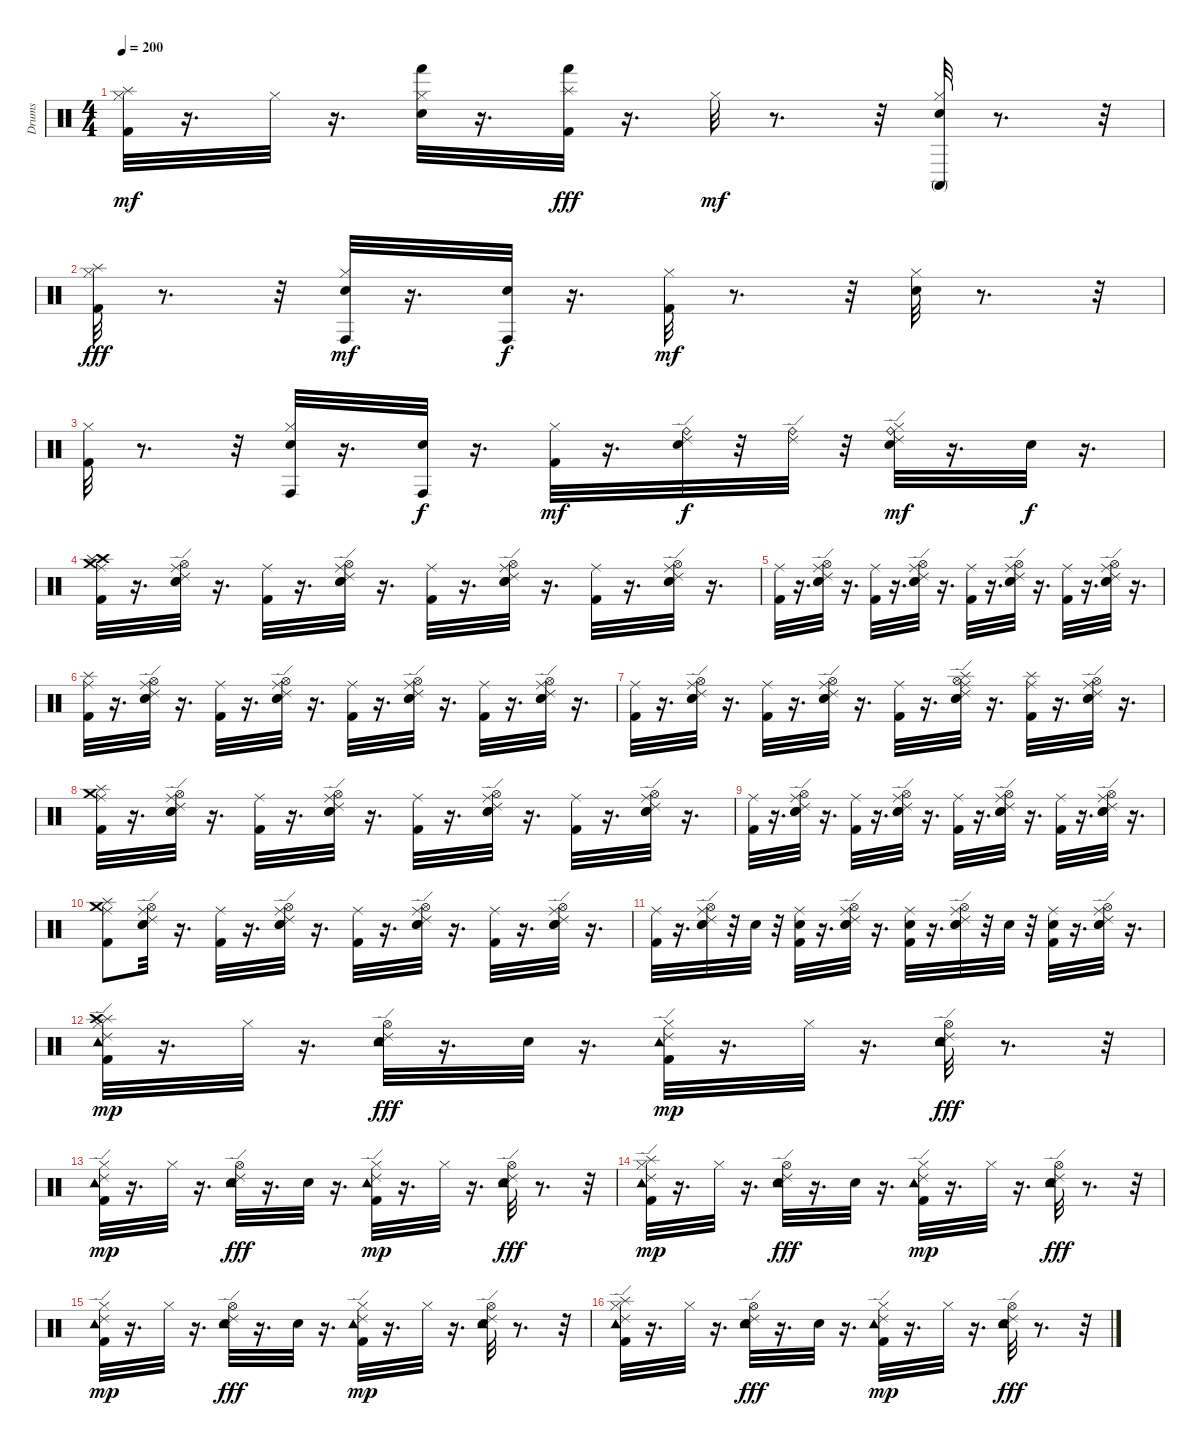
\track ("Drums" "Drums") {instrument percussion}
\staff {score}
\articulation defaults
\ts (4 4)
\tempo 200
\clef neutral
\ks c
("Splash (hit)" "Hi-Hat (closed)" "Kick (hit) 2").32{dy mf} r.16{d} "Hi-Hat (closed)".32 r.16{d} ("Hand (hit)" "Hi-Hat (closed)" "Electric Snare (hit)").32 r.16{d} ("Hand (hit)" "Splash (hit)" "Kick (hit) 2").32{dy fff} r.16{d} "Hi-Hat (closed)".32{dy mf} r.8{d} r.32 ("Conga high (mute)" "Hi-Hat (closed)" "Electric Snare (hit)").32 r.8{d} r.32 |
("Hi-Hat (closed)" "Splash (hit)" "Kick (hit) 2").32{dy fff} r.8{d} r.32 ("Hi-Hat (closed)" "Electric Snare (hit)" "Conga high (hit)").32{dy mf} r.16{d} ("Conga high (hit)" "Electric Snare (hit)").32{dy f} r.16{d} ("Hi-Hat (closed)" "Kick (hit) 2").32{dy mf} r.8{d} r.32 ("Hi-Hat (closed)" "Electric Snare (hit)").32 r.8{d} r.32 |
("Hi-Hat (closed)" "Kick (hit) 2").32 r.8{d} r.32 ("Conga high (hit)" "Hi-Hat (closed)" "Electric Snare (hit)").32 r.16{d} ("Conga high (hit)" "Electric Snare (hit)").32{dy f} r.16{d} ("Hi-Hat (closed)" "Kick (hit) 2").32{dy mf} r.16{d} ("Ride (edge) 2" "Electric Snare (hit)" "Ride (bell)").32{dy f} r.32 ("Ride (edge) 2" "Ride (bell)").32 r.32 ("Ride (edge) 2" "Ride (bell)" "Hi-Hat (closed)" "Electric Snare (hit)").32{dy mf} r.16{d} "Electric Snare (hit)".32{dy f} r.16{d} |
("Ride (middle)" "Crash high (hit)" "Splash (hit)" "Crash medium (hit)" "Kick (hit) 2").32 r.16{d} ("Ride (middle)" "Ride (edge) 2" "Hand Clap (hit)" "Electric Snare (hit)" "Hi-Hat (open)").32 r.16{d} ("Ride (middle)" "Kick (hit) 2").32 r.16{d} ("Ride (middle)" "Ride (edge) 2" "Hand Clap (hit)" "Electric Snare (hit)" "Hi-Hat (open)").32 r.16{d} ("Ride (middle)" "Kick (hit) 2").32 r.16{d} ("Hi-Hat (open)" "Ride (middle)" "Ride (edge) 2" "Hand Clap (hit)" "Electric Snare (hit)").32 r.16{d} ("Ride (middle)" "Kick (hit) 2").32 r.16{d} ("Hi-Hat (open)" "Ride (middle)" "Ride (edge) 2" "Hand Clap (hit)" "Electric Snare (hit)").32 r.16{d} |
("Ride (middle)" "Kick (hit) 2").32 r.16{d} ("Ride (middle)" "Ride (edge) 2" "Hand Clap (hit)" "Electric Snare (hit)" "Hi-Hat (open)").32 r.16{d} ("Ride (middle)" "Kick (hit) 2").32 r.16{d} ("Ride (middle)" "Ride (edge) 2" "Hand Clap (hit)" "Electric Snare (hit)" "Hi-Hat (open)").32 r.16{d} ("Ride (middle)" "Kick (hit) 2").32 r.16{d} ("Hi-Hat (open)" "Ride (middle)" "Ride (edge) 2" "Hand Clap (hit)" "Electric Snare (hit)").32 r.16{d} ("Ride (middle)" "Kick (hit) 2").32 r.16{d} ("Hi-Hat (open)" "Ride (middle)" "Ride (edge) 2" "Hand Clap (hit)" "Electric Snare (hit)").32 r.16{d} |
("Ride (middle)" "Splash (hit)" "Kick (hit) 2").32 r.16{d} ("Ride (middle)" "Ride (edge) 2" "Hand Clap (hit)" "Electric Snare (hit)" "Hi-Hat (open)").32 r.16{d} ("Ride (middle)" "Kick (hit) 2").32 r.16{d} ("Ride (middle)" "Ride (edge) 2" "Hand Clap (hit)" "Electric Snare (hit)" "Hi-Hat (open)").32 r.16{d} ("Ride (middle)" "Kick (hit) 2").32 r.16{d} ("Hi-Hat (open)" "Ride (middle)" "Ride (edge) 2" "Hand Clap (hit)" "Electric Snare (hit)").32 r.16{d} ("Ride (middle)" "Kick (hit) 2").32 r.16{d} ("Hi-Hat (open)" "Ride (middle)" "Ride (edge) 2" "Hand Clap (hit)" "Electric Snare (hit)").32 r.16{d} |
("Kick (hit) 2" "Ride (middle)").32 r.16{d} ("Ride (middle)" "Ride (edge) 2" "Electric Snare (hit)" "Hi-Hat (open)" "Hand Clap (hit)").32 r.16{d} ("Kick (hit) 2" "Ride (middle)").32 r.16{d} ("Ride (middle)" "Ride (edge) 2" "Electric Snare (hit)" "Hi-Hat (open)" "Hand Clap (hit)").32 r.16{d} ("Kick (hit) 2" "Ride (middle)").32 r.16{d} ("Splash (hit)" "Hi-Hat (open)" "Ride (middle)" "Hand Clap (hit)" "Electric Snare (hit)" "Ride (edge) 2").32 r.16{d} ("Splash (hit)" "Kick (hit) 2" "Ride (middle)").32 r.16{d} ("Hi-Hat (open)" "Ride (middle)" "Hand Clap (hit)" "Electric Snare (hit)" "Ride (edge) 2").32 r.16{d} |
("Crash medium (hit)" "Ride (middle)" "Splash (hit)" "Kick (hit) 2").32 r.16{d} ("Ride (middle)" "Ride (edge) 2" "Hand Clap (hit)" "Electric Snare (hit)" "Hi-Hat (open)").32 r.16{d} ("Ride (middle)" "Kick (hit) 2").32 r.16{d} ("Ride (middle)" "Ride (edge) 2" "Hand Clap (hit)" "Electric Snare (hit)" "Hi-Hat (open)").32 r.16{d} ("Ride (middle)" "Kick (hit) 2").32 r.16{d} ("Hi-Hat (open)" "Ride (middle)" "Ride (edge) 2" "Hand Clap (hit)" "Electric Snare (hit)").32 r.16{d} ("Ride (middle)" "Kick (hit) 2").32 r.16{d} ("Hi-Hat (open)" "Ride (middle)" "Ride (edge) 2" "Hand Clap (hit)" "Electric Snare (hit)").32 r.16{d} |
("Kick (hit) 2" "Ride (middle)").32 r.16{d} ("Ride (middle)" "Ride (edge) 2" "Electric Snare (hit)" "Hi-Hat (open)" "Hand Clap (hit)").32 r.16{d} ("Kick (hit) 2" "Ride (middle)").32 r.16{d} ("Ride (middle)" "Ride (edge) 2" "Electric Snare (hit)" "Hi-Hat (open)" "Hand Clap (hit)").32 r.16{d} ("Kick (hit) 2" "Ride (middle)").32 r.16{d} ("Hi-Hat (open)" "Ride (middle)" "Hand Clap (hit)" "Electric Snare (hit)" "Ride (edge) 2").32 r.16{d} ("Kick (hit) 2" "Ride (middle)").32 r.16{d} ("Hi-Hat (open)" "Ride (middle)" "Hand Clap (hit)" "Electric Snare (hit)" "Ride (edge) 2").32 r.16{d} |
("Crash medium (hit)" "Ride (middle)" "Splash (hit)" "Kick (hit) 2").8 ("Ride (middle)" "Ride (edge) 2" "Hand Clap (hit)" "Electric Snare (hit)" "Hi-Hat (open)").32 r.16{d} ("Ride (middle)" "Kick (hit) 2").32 r.16{d} ("Ride (middle)" "Ride (edge) 2" "Hand Clap (hit)" "Electric Snare (hit)" "Hi-Hat (open)").32 r.16{d} ("Ride (middle)" "Kick (hit) 2").32 r.16{d} ("Hi-Hat (open)" "Ride (middle)" "Ride (edge) 2" "Hand Clap (hit)" "Electric Snare (hit)").32 r.16{d} ("Ride (middle)" "Kick (hit) 2").32 r.16{d} ("Hi-Hat (open)" "Ride (middle)" "Ride (edge) 2" "Hand Clap (hit)" "Electric Snare (hit)").32 r.16{d} |
("Kick (hit) 2" "Ride (middle)").32 r.16{d} ("Ride (middle)" "Ride (edge) 2" "Electric Snare (hit)" "Hi-Hat (open)" "Hand Clap (hit)").32 r.32 "Electric Snare (hit)".32 r.32 ("Electric Snare (hit)" "Kick (hit) 2" "Ride (middle)").32 r.16{d} ("Ride (middle)" "Ride (edge) 2" "Electric Snare (hit)" "Hi-Hat (open)" "Hand Clap (hit)").32 r.16{d} ("Electric Snare (hit)" "Kick (hit) 2" "Ride (middle)").32 r.16{d} ("Hi-Hat (open)" "Ride (middle)" "Hand Clap (hit)" "Electric Snare (hit)" "Ride (edge) 2").32 r.32 "Electric Snare (hit)".32 r.32 ("Electric Snare (hit)" "Kick (hit) 2" "Ride (middle)").32 r.16{d} ("Hi-Hat (open)" "Ride (middle)" "Hand Clap (hit)" "Electric Snare (hit)" "Ride (edge) 2").32 r.16{d} |
("Ride (edge) 2" "Tambourine (hit)" "Hi-Hat (closed)" "Kick (hit) 2" "Splash (hit)" "Crash high (hit)").32{dy mp} r.16{d} "Hi-Hat (closed)".32 r.16{d} ("Ride (edge) 2" "Tambourine (hit)" "Hi-Hat (open)" "Electric Snare (hit)").32{dy fff} r.16{d} "Electric Snare (hit)".32 r.16{d} ("Ride (edge) 2" "Tambourine (hit)" "Kick (hit) 2" "Hi-Hat (closed)").32{dy mp} r.16{d} "Hi-Hat (closed)".32 r.16{d} ("Ride (edge) 2" "Tambourine (hit)" "Hi-Hat (open)" "Electric Snare (hit)").32{dy fff} r.8{d} r.32 |
("Ride (edge) 2" "Tambourine (hit)" "Hi-Hat (closed)" "Kick (hit) 2").32{dy mp} r.16{d} "Hi-Hat (closed)".32 r.16{d} ("Ride (edge) 2" "Tambourine (hit)" "Hi-Hat (open)" "Electric Snare (hit)").32{dy fff} r.16{d} "Electric Snare (hit)".32 r.16{d} ("Ride (edge) 2" "Tambourine (hit)" "Kick (hit) 2" "Hi-Hat (closed)").32{dy mp} r.16{d} "Hi-Hat (closed)".32 r.16{d} ("Ride (edge) 2" "Tambourine (hit)" "Hi-Hat (open)" "Electric Snare (hit)").32{dy fff} r.8{d} r.32 |
("Ride (edge) 2" "Tambourine (hit)" "Hi-Hat (closed)" "Kick (hit) 2" "Splash (hit)").32{dy mp} r.16{d} "Hi-Hat (closed)".32 r.16{d} ("Ride (edge) 2" "Tambourine (hit)" "Hi-Hat (open)" "Electric Snare (hit)").32{dy fff} r.16{d} "Electric Snare (hit)".32 r.16{d} ("Ride (edge) 2" "Tambourine (hit)" "Kick (hit) 2" "Hi-Hat (closed)").32{dy mp} r.16{d} "Hi-Hat (closed)".32 r.16{d} ("Ride (edge) 2" "Tambourine (hit)" "Hi-Hat (open)" "Electric Snare (hit)").32{dy fff} r.8{d} r.32 |
("Tambourine (hit)" "Hi-Hat (closed)" "Kick (hit) 2" "Ride (edge) 2").32{dy mp} r.16{d} "Hi-Hat (closed)".32 r.16{d} ("Ride (edge) 2" "Hi-Hat (open)" "Electric Snare (hit)" "Tambourine (hit)").32{dy fff} r.16{d} "Electric Snare (hit)".32 r.16{d} ("Tambourine (hit)" "Kick (hit) 2" "Hi-Hat (closed)" "Ride (edge) 2").32{dy mp} r.16{d} "Hi-Hat (closed)".32 r.16{d} ("Tambourine (hit)" "Hi-Hat (open)" "Electric Snare (hit)" "Ride (edge) 2").32 r.8{d} r.32 |
("Ride (edge) 2" "Tambourine (hit)" "Hi-Hat (closed)" "Kick (hit) 2" "Splash (hit)").32 r.16{d} "Hi-Hat (closed)".32 r.16{d} ("Ride (edge) 2" "Tambourine (hit)" "Hi-Hat (open)" "Electric Snare (hit)").32{dy fff} r.16{d} "Electric Snare (hit)".32 r.16{d} ("Ride (edge) 2" "Tambourine (hit)" "Kick (hit) 2" "Hi-Hat (closed)").32{dy mp} r.16{d} "Hi-Hat (closed)".32 r.16{d} ("Ride (edge) 2" "Tambourine (hit)" "Hi-Hat (open)" "Electric Snare (hit)").32{dy fff} r.8{d} r.32
